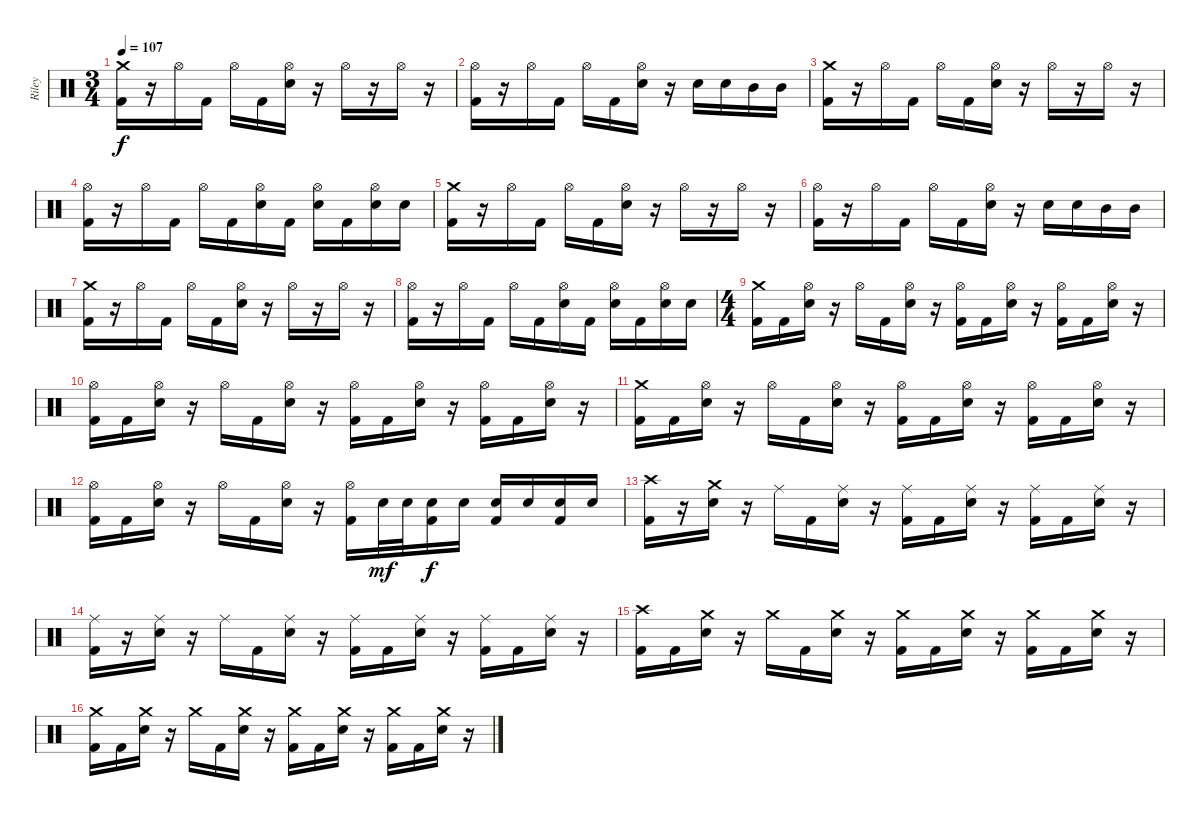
\track ("Riley" "Riley") {instrument percussion}
\staff {score}
\articulation defaults
\ts (3 4)
\tempo 107
\clef neutral
\ks c
("Crash medium (hit)" "Kick (hit) 2").16{dy f} r.16 "Hi-Hat (open)".16 "Kick (hit) 2".16 "Hi-Hat (open)".16 "Kick (hit) 2".16 ("Hi-Hat (open)" "Electric Snare (hit)").16 r.16 "Hi-Hat (open)".16 r.16 "Hi-Hat (open)".16 r.16 |
("Hi-Hat (open)" "Kick (hit) 2").16 r.16 "Hi-Hat (open)".16 "Kick (hit) 2".16 "Hi-Hat (open)".16 "Kick (hit) 2".16 ("Hi-Hat (open)" "Electric Snare (hit)").16 r.16 "Electric Snare (hit)".16 "Electric Snare (hit)".16 "Mid Tom (hit)".16 "Mid Tom (hit)".16 |
("Crash medium (hit)" "Kick (hit) 2").16 r.16 "Hi-Hat (open)".16 "Kick (hit) 2".16 "Hi-Hat (open)".16 "Kick (hit) 2".16 ("Hi-Hat (open)" "Electric Snare (hit)").16 r.16 "Hi-Hat (open)".16 r.16 "Hi-Hat (open)".16 r.16 |
("Hi-Hat (open)" "Kick (hit) 2").16 r.16 "Hi-Hat (open)".16 "Kick (hit) 2".16 "Hi-Hat (open)".16 "Kick (hit) 2".16 ("Hi-Hat (open)" "Electric Snare (hit)").16 "Kick (hit) 2".16 ("Hi-Hat (open)" "Electric Snare (hit)").16 "Kick (hit) 2".16 ("Hi-Hat (open)" "Electric Snare (hit)").16 "Electric Snare (hit)".16 |
("Crash medium (hit)" "Kick (hit) 2").16 r.16 "Hi-Hat (open)".16 "Kick (hit) 2".16 "Hi-Hat (open)".16 "Kick (hit) 2".16 ("Hi-Hat (open)" "Electric Snare (hit)").16 r.16 "Hi-Hat (open)".16 r.16 "Hi-Hat (open)".16 r.16 |
("Hi-Hat (open)" "Kick (hit) 2").16 r.16 "Hi-Hat (open)".16 "Kick (hit) 2".16 "Hi-Hat (open)".16 "Kick (hit) 2".16 ("Hi-Hat (open)" "Electric Snare (hit)").16 r.16 "Electric Snare (hit)".16 "Electric Snare (hit)".16 "Mid Tom (hit)".16 "Mid Tom (hit)".16 |
("Crash medium (hit)" "Kick (hit) 2").16 r.16 "Hi-Hat (open)".16 "Kick (hit) 2".16 "Hi-Hat (open)".16 "Kick (hit) 2".16 ("Hi-Hat (open)" "Electric Snare (hit)").16 r.16 "Hi-Hat (open)".16 r.16 "Hi-Hat (open)".16 r.16 |
("Hi-Hat (open)" "Kick (hit) 2").16 r.16 "Hi-Hat (open)".16 "Kick (hit) 2".16 "Hi-Hat (open)".16 "Kick (hit) 2".16 ("Hi-Hat (open)" "Electric Snare (hit)").16 "Kick (hit) 2".16 ("Hi-Hat (open)" "Electric Snare (hit)").16 "Kick (hit) 2".16 ("Hi-Hat (open)" "Electric Snare (hit)").16 "Electric Snare (hit)".16 |
\ts (4 4)
("Crash medium (hit)" "Kick (hit) 2").16 "Kick (hit) 2".16 ("Hi-Hat (open)" "Electric Snare (hit)").16 r.16 "Hi-Hat (open)".16 "Kick (hit) 2".16 ("Hi-Hat (open)" "Electric Snare (hit)").16 r.16 ("Hi-Hat (open)" "Kick (hit) 2").16 "Kick (hit) 2".16 ("Hi-Hat (open)" "Electric Snare (hit)").16 r.16 ("Hi-Hat (open)" "Kick (hit) 2").16 "Kick (hit) 2".16 ("Hi-Hat (open)" "Electric Snare (hit)").16 r.16 |
("Hi-Hat (open)" "Kick (hit) 2").16 "Kick (hit) 2".16 ("Hi-Hat (open)" "Electric Snare (hit)").16 r.16 "Hi-Hat (open)".16 "Kick (hit) 2".16 ("Hi-Hat (open)" "Electric Snare (hit)").16 r.16 ("Hi-Hat (open)" "Kick (hit) 2").16 "Kick (hit) 2".16 ("Hi-Hat (open)" "Electric Snare (hit)").16 r.16 ("Hi-Hat (open)" "Kick (hit) 2").16 "Kick (hit) 2".16 ("Hi-Hat (open)" "Electric Snare (hit)").16 r.16 |
("Crash medium (hit)" "Kick (hit) 2").16 "Kick (hit) 2".16 ("Hi-Hat (open)" "Electric Snare (hit)").16 r.16 "Hi-Hat (open)".16 "Kick (hit) 2".16 ("Hi-Hat (open)" "Electric Snare (hit)").16 r.16 ("Hi-Hat (open)" "Kick (hit) 2").16 "Kick (hit) 2".16 ("Hi-Hat (open)" "Electric Snare (hit)").16 r.16 ("Hi-Hat (open)" "Kick (hit) 2").16 "Kick (hit) 2".16 ("Hi-Hat (open)" "Electric Snare (hit)").16 r.16 |
("Hi-Hat (open)" "Kick (hit) 2").16 "Kick (hit) 2".16 ("Hi-Hat (open)" "Electric Snare (hit)").16 r.16 "Hi-Hat (open)".16 "Kick (hit) 2".16 ("Hi-Hat (open)" "Electric Snare (hit)").16 r.16 ("Hi-Hat (open)" "Kick (hit) 2").16 "Electric Snare (hit)".32{dy mf} "Electric Snare (hit)".32 ("Electric Snare (hit)" "Kick (hit) 2").16{dy f} "Electric Snare (hit)".16 ("Electric Snare (hit)" "Kick (hit) 2").16 "Electric Snare (hit)".16 ("Electric Snare (hit)" "Kick (hit) 2").16 "Electric Snare (hit)".16 |
("Crash high (hit)" "Kick (hit) 2").16 r.16 ("Crash medium (hit)" "Electric Snare (hit)").16 r.16 "Ride (middle)".16 "Kick (hit) 2".16 ("Ride (middle)" "Electric Snare (hit)").16 r.16 ("Ride (middle)" "Kick (hit) 2").16 "Kick (hit) 2".16 ("Ride (middle)" "Electric Snare (hit)").16 r.16 ("Ride (middle)" "Kick (hit) 2").16 "Kick (hit) 2".16 ("Ride (middle)" "Electric Snare (hit)").16 r.16 |
("Ride (middle)" "Kick (hit) 2").16 r.16 ("Ride (middle)" "Electric Snare (hit)").16 r.16 "Ride (middle)".16 "Kick (hit) 2".16 ("Ride (middle)" "Electric Snare (hit)").16 r.16 ("Ride (middle)" "Kick (hit) 2").16 "Kick (hit) 2".16 ("Ride (middle)" "Electric Snare (hit)").16 r.16 ("Ride (middle)" "Kick (hit) 2").16 "Kick (hit) 2".16 ("Ride (middle)" "Electric Snare (hit)").16 r.16 |
("Crash high (hit)" "Kick (hit) 2").16 "Kick (hit) 2".16 ("Crash medium (hit)" "Electric Snare (hit)").16 r.16 "Crash medium (hit)".16 "Kick (hit) 2".16 ("Crash medium (hit)" "Electric Snare (hit)").16 r.16 ("Crash medium (hit)" "Kick (hit) 2").16 "Kick (hit) 2".16 ("Crash medium (hit)" "Electric Snare (hit)").16 r.16 ("Crash medium (hit)" "Kick (hit) 2").16 "Kick (hit) 2".16 ("Crash medium (hit)" "Electric Snare (hit)").16 r.16 |
("Crash medium (hit)" "Kick (hit) 2").16 "Kick (hit) 2".16 ("Crash medium (hit)" "Electric Snare (hit)").16 r.16 "Crash medium (hit)".16 "Kick (hit) 2".16 ("Crash medium (hit)" "Electric Snare (hit)").16 r.16 ("Crash medium (hit)" "Kick (hit) 2").16 "Kick (hit) 2".16 ("Crash medium (hit)" "Electric Snare (hit)").16 r.16 ("Crash medium (hit)" "Kick (hit) 2").16 "Kick (hit) 2".16 ("Crash medium (hit)" "Electric Snare (hit)").16 r.16
